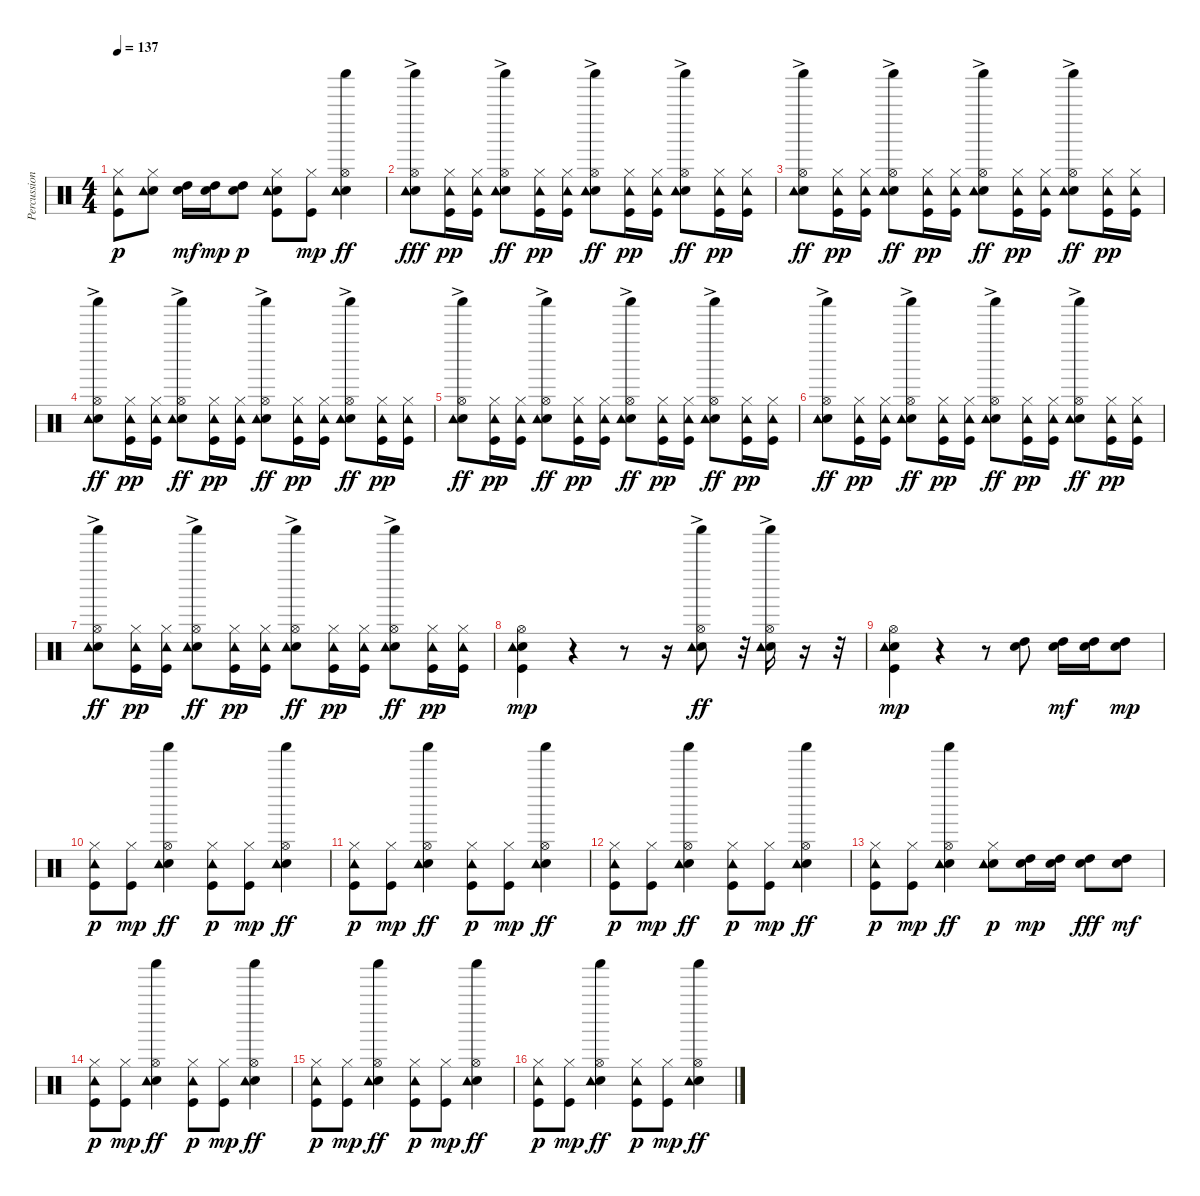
\track ("Percussion" "Percussion") {instrument percussion}
\staff {score}
\articulation defaults
\ts (4 4)
\tempo 137
\clef neutral
\ks c
("Hi-Hat (closed)" "Kick (hit)" "Tambourine (hit)").8{dy p} ("Hi-Hat (closed)" "Electric Snare (hit)" "Tambourine (hit)").8 ("Electric Snare (hit)" "High Tom (hit)").16{dy mf} ("Electric Snare (hit)" "High Tom (hit)").16{dy mp} ("Electric Snare (hit)" "High Tom (hit)").8{dy p} ("Hi-Hat (closed)" "Kick (hit)" "Snare (hit) 2" "Tambourine (hit)").8 ("Hi-Hat (closed)" "Kick (hit)").8{dy mp} ("Hi-Hat (open)" "Electric Snare (hit)" "Tambourine (hit)" "Shaker (hit)").4{dy ff} |
("Hi-Hat (open)"{ac} "Electric Snare (hit)"{ac} "Tambourine (hit)"{ac} "Shaker (hit)"{ac}).8{dy fff} ("Hi-Hat (closed)" "Kick (hit)" "Tambourine (hit)").16{dy pp} ("Hi-Hat (closed)" "Kick (hit)" "Tambourine (hit)").16 ("Hi-Hat (open)"{ac} "Electric Snare (hit)"{ac} "Tambourine (hit)"{ac} "Shaker (hit)"{ac}).8{dy ff} ("Hi-Hat (closed)" "Kick (hit)" "Tambourine (hit)").16{dy pp} ("Hi-Hat (closed)" "Kick (hit)" "Tambourine (hit)").16 ("Hi-Hat (open)"{ac} "Electric Snare (hit)"{ac} "Tambourine (hit)"{ac} "Shaker (hit)"{ac}).8{dy ff} ("Hi-Hat (closed)" "Kick (hit)" "Tambourine (hit)").16{dy pp} ("Hi-Hat (closed)" "Kick (hit)" "Tambourine (hit)").16 ("Hi-Hat (open)"{ac} "Electric Snare (hit)"{ac} "Tambourine (hit)"{ac} "Shaker (hit)"{ac}).8{dy ff} ("Hi-Hat (closed)" "Kick (hit)" "Tambourine (hit)").16{dy pp} ("Hi-Hat (closed)" "Kick (hit)" "Tambourine (hit)").16 |
("Hi-Hat (open)"{ac} "Electric Snare (hit)"{ac} "Tambourine (hit)"{ac} "Shaker (hit)"{ac}).8{dy ff} ("Hi-Hat (closed)" "Kick (hit)" "Tambourine (hit)").16{dy pp} ("Hi-Hat (closed)" "Kick (hit)" "Tambourine (hit)").16 ("Hi-Hat (open)"{ac} "Electric Snare (hit)"{ac} "Tambourine (hit)"{ac} "Shaker (hit)"{ac}).8{dy ff} ("Hi-Hat (closed)" "Kick (hit)" "Tambourine (hit)").16{dy pp} ("Hi-Hat (closed)" "Kick (hit)" "Tambourine (hit)").16 ("Hi-Hat (open)"{ac} "Electric Snare (hit)"{ac} "Tambourine (hit)"{ac} "Shaker (hit)"{ac}).8{dy ff} ("Hi-Hat (closed)" "Kick (hit)" "Tambourine (hit)").16{dy pp} ("Hi-Hat (closed)" "Kick (hit)" "Tambourine (hit)").16 ("Hi-Hat (open)"{ac} "Electric Snare (hit)"{ac} "Tambourine (hit)"{ac} "Shaker (hit)"{ac}).8{dy ff} ("Hi-Hat (closed)" "Kick (hit)" "Tambourine (hit)").16{dy pp} ("Hi-Hat (closed)" "Kick (hit)" "Tambourine (hit)").16 |
("Hi-Hat (open)"{ac} "Electric Snare (hit)"{ac} "Tambourine (hit)"{ac} "Shaker (hit)"{ac}).8{dy ff} ("Hi-Hat (closed)" "Kick (hit)" "Tambourine (hit)").16{dy pp} ("Hi-Hat (closed)" "Kick (hit)" "Tambourine (hit)").16 ("Hi-Hat (open)"{ac} "Electric Snare (hit)"{ac} "Tambourine (hit)"{ac} "Shaker (hit)"{ac}).8{dy ff} ("Hi-Hat (closed)" "Kick (hit)" "Tambourine (hit)").16{dy pp} ("Hi-Hat (closed)" "Kick (hit)" "Tambourine (hit)").16 ("Hi-Hat (open)"{ac} "Electric Snare (hit)"{ac} "Tambourine (hit)"{ac} "Shaker (hit)"{ac}).8{dy ff} ("Hi-Hat (closed)" "Kick (hit)" "Tambourine (hit)").16{dy pp} ("Hi-Hat (closed)" "Kick (hit)" "Tambourine (hit)").16 ("Hi-Hat (open)"{ac} "Electric Snare (hit)"{ac} "Tambourine (hit)"{ac} "Shaker (hit)"{ac}).8{dy ff} ("Hi-Hat (closed)" "Kick (hit)" "Tambourine (hit)").16{dy pp} ("Hi-Hat (closed)" "Kick (hit)" "Tambourine (hit)").16 |
("Hi-Hat (open)"{ac} "Electric Snare (hit)"{ac} "Tambourine (hit)"{ac} "Shaker (hit)"{ac}).8{dy ff} ("Hi-Hat (closed)" "Kick (hit)" "Tambourine (hit)").16{dy pp} ("Hi-Hat (closed)" "Kick (hit)" "Tambourine (hit)").16 ("Hi-Hat (open)"{ac} "Electric Snare (hit)"{ac} "Tambourine (hit)"{ac} "Shaker (hit)"{ac}).8{dy ff} ("Hi-Hat (closed)" "Kick (hit)" "Tambourine (hit)").16{dy pp} ("Hi-Hat (closed)" "Kick (hit)" "Tambourine (hit)").16 ("Hi-Hat (open)"{ac} "Electric Snare (hit)"{ac} "Tambourine (hit)"{ac} "Shaker (hit)"{ac}).8{dy ff} ("Hi-Hat (closed)" "Kick (hit)" "Tambourine (hit)").16{dy pp} ("Hi-Hat (closed)" "Kick (hit)" "Tambourine (hit)").16 ("Hi-Hat (open)"{ac} "Electric Snare (hit)"{ac} "Tambourine (hit)"{ac} "Shaker (hit)"{ac}).8{dy ff} ("Hi-Hat (closed)" "Kick (hit)" "Tambourine (hit)").16{dy pp} ("Hi-Hat (closed)" "Kick (hit)" "Tambourine (hit)").16 |
("Hi-Hat (open)"{ac} "Electric Snare (hit)"{ac} "Tambourine (hit)"{ac} "Shaker (hit)"{ac}).8{dy ff} ("Hi-Hat (closed)" "Kick (hit)" "Tambourine (hit)").16{dy pp} ("Hi-Hat (closed)" "Kick (hit)" "Tambourine (hit)").16 ("Hi-Hat (open)"{ac} "Electric Snare (hit)"{ac} "Tambourine (hit)"{ac} "Shaker (hit)"{ac}).8{dy ff} ("Hi-Hat (closed)" "Kick (hit)" "Tambourine (hit)").16{dy pp} ("Hi-Hat (closed)" "Kick (hit)" "Tambourine (hit)").16 ("Hi-Hat (open)"{ac} "Electric Snare (hit)"{ac} "Tambourine (hit)"{ac} "Shaker (hit)"{ac}).8{dy ff} ("Hi-Hat (closed)" "Kick (hit)" "Tambourine (hit)").16{dy pp} ("Hi-Hat (closed)" "Kick (hit)" "Tambourine (hit)").16 ("Hi-Hat (open)"{ac} "Electric Snare (hit)"{ac} "Tambourine (hit)"{ac} "Shaker (hit)"{ac}).8{dy ff} ("Hi-Hat (closed)" "Kick (hit)" "Tambourine (hit)").16{dy pp} ("Hi-Hat (closed)" "Kick (hit)" "Tambourine (hit)").16 |
("Hi-Hat (open)"{ac} "Electric Snare (hit)"{ac} "Tambourine (hit)"{ac} "Shaker (hit)"{ac}).8{dy ff} ("Hi-Hat (closed)" "Kick (hit)" "Tambourine (hit)").16{dy pp} ("Hi-Hat (closed)" "Kick (hit)" "Tambourine (hit)").16 ("Hi-Hat (open)"{ac} "Electric Snare (hit)"{ac} "Tambourine (hit)"{ac} "Shaker (hit)"{ac}).8{dy ff} ("Hi-Hat (closed)" "Kick (hit)" "Tambourine (hit)").16{dy pp} ("Hi-Hat (closed)" "Kick (hit)" "Tambourine (hit)").16 ("Hi-Hat (open)"{ac} "Electric Snare (hit)"{ac} "Tambourine (hit)"{ac} "Shaker (hit)"{ac}).8{dy ff} ("Hi-Hat (closed)" "Kick (hit)" "Tambourine (hit)").16{dy pp} ("Hi-Hat (closed)" "Kick (hit)" "Tambourine (hit)").16 ("Hi-Hat (open)"{ac} "Electric Snare (hit)"{ac} "Tambourine (hit)"{ac} "Shaker (hit)"{ac}).8{dy ff} ("Hi-Hat (closed)" "Kick (hit)" "Tambourine (hit)").16{dy pp} ("Hi-Hat (closed)" "Kick (hit)" "Tambourine (hit)").16 |
("Hi-Hat (open)" "Kick (hit)" "Electric Snare (hit)" "Tambourine (hit)").4{dy mp} r.4 r.8 r.16 ("Hi-Hat (open)"{ac} "Electric Snare (hit)"{ac} "Tambourine (hit)"{ac} "Shaker (hit)"{ac}).8{dy ff} r.32 ("Hi-Hat (open)"{ac} "Electric Snare (hit)"{ac} "Tambourine (hit)"{ac} "Shaker (hit)"{ac}).16 r.16 r.32 |
("Hi-Hat (open)" "Kick (hit)" "Electric Snare (hit)" "Tambourine (hit)").4{dy mp} r.4 r.8 ("Electric Snare (hit)" "High Tom (hit)").8 ("Electric Snare (hit)" "High Tom (hit)").16{dy mf} ("Electric Snare (hit)" "High Tom (hit)").16 ("Electric Snare (hit)" "High Tom (hit)").8{dy mp} |
("Hi-Hat (closed)" "Kick (hit)" "Tambourine (hit)").8{dy p} ("Hi-Hat (closed)" "Kick (hit)").8{dy mp} ("Hi-Hat (open)" "Electric Snare (hit)" "Tambourine (hit)" "Shaker (hit)").4{dy ff} ("Hi-Hat (closed)" "Kick (hit)" "Tambourine (hit)").8{dy p} ("Hi-Hat (closed)" "Kick (hit)").8{dy mp} ("Hi-Hat (open)" "Electric Snare (hit)" "Tambourine (hit)" "Shaker (hit)").4{dy ff} |
("Hi-Hat (closed)" "Kick (hit)" "Tambourine (hit)").8{dy p} ("Hi-Hat (closed)" "Kick (hit)").8{dy mp} ("Hi-Hat (open)" "Electric Snare (hit)" "Tambourine (hit)" "Shaker (hit)").4{dy ff} ("Hi-Hat (closed)" "Kick (hit)" "Tambourine (hit)").8{dy p} ("Hi-Hat (closed)" "Kick (hit)").8{dy mp} ("Hi-Hat (open)" "Electric Snare (hit)" "Tambourine (hit)" "Shaker (hit)").4{dy ff} |
("Hi-Hat (closed)" "Kick (hit)" "Tambourine (hit)").8{dy p} ("Hi-Hat (closed)" "Kick (hit)").8{dy mp} ("Hi-Hat (open)" "Electric Snare (hit)" "Tambourine (hit)" "Shaker (hit)").4{dy ff} ("Hi-Hat (closed)" "Kick (hit)" "Tambourine (hit)").8{dy p} ("Hi-Hat (closed)" "Kick (hit)").8{dy mp} ("Hi-Hat (open)" "Electric Snare (hit)" "Tambourine (hit)" "Shaker (hit)").4{dy ff} |
("Hi-Hat (closed)" "Kick (hit)" "Tambourine (hit)").8{dy p} ("Hi-Hat (closed)" "Kick (hit)").8{dy mp} ("Hi-Hat (open)" "Electric Snare (hit)" "Tambourine (hit)" "Shaker (hit)").4{dy ff} ("Hi-Hat (closed)" "Electric Snare (hit)" "Tambourine (hit)").8{dy p} ("Electric Snare (hit)" "High Tom (hit)").16{dy mp} ("Electric Snare (hit)" "High Tom (hit)").16 ("Electric Snare (hit)" "High Tom (hit)").8{dy fff} ("Electric Snare (hit)" "High Tom (hit)").8{dy mf} |
("Hi-Hat (closed)" "Kick (hit)" "Tambourine (hit)").8{dy p} ("Hi-Hat (closed)" "Kick (hit)").8{dy mp} ("Hi-Hat (open)" "Electric Snare (hit)" "Tambourine (hit)" "Shaker (hit)").4{dy ff} ("Hi-Hat (closed)" "Kick (hit)" "Tambourine (hit)").8{dy p} ("Hi-Hat (closed)" "Kick (hit)").8{dy mp} ("Hi-Hat (open)" "Electric Snare (hit)" "Tambourine (hit)" "Shaker (hit)").4{dy ff} |
("Hi-Hat (closed)" "Kick (hit)" "Tambourine (hit)").8{dy p} ("Hi-Hat (closed)" "Kick (hit)").8{dy mp} ("Hi-Hat (open)" "Electric Snare (hit)" "Tambourine (hit)" "Shaker (hit)").4{dy ff} ("Hi-Hat (closed)" "Kick (hit)" "Tambourine (hit)").8{dy p} ("Hi-Hat (closed)" "Kick (hit)").8{dy mp} ("Hi-Hat (open)" "Electric Snare (hit)" "Tambourine (hit)" "Shaker (hit)").4{dy ff} |
("Hi-Hat (closed)" "Kick (hit)" "Tambourine (hit)").8{dy p} ("Hi-Hat (closed)" "Kick (hit)").8{dy mp} ("Hi-Hat (open)" "Electric Snare (hit)" "Tambourine (hit)" "Shaker (hit)").4{dy ff} ("Hi-Hat (closed)" "Kick (hit)" "Tambourine (hit)").8{dy p} ("Hi-Hat (closed)" "Kick (hit)").8{dy mp} ("Hi-Hat (open)" "Electric Snare (hit)" "Tambourine (hit)" "Shaker (hit)").4{dy ff}
